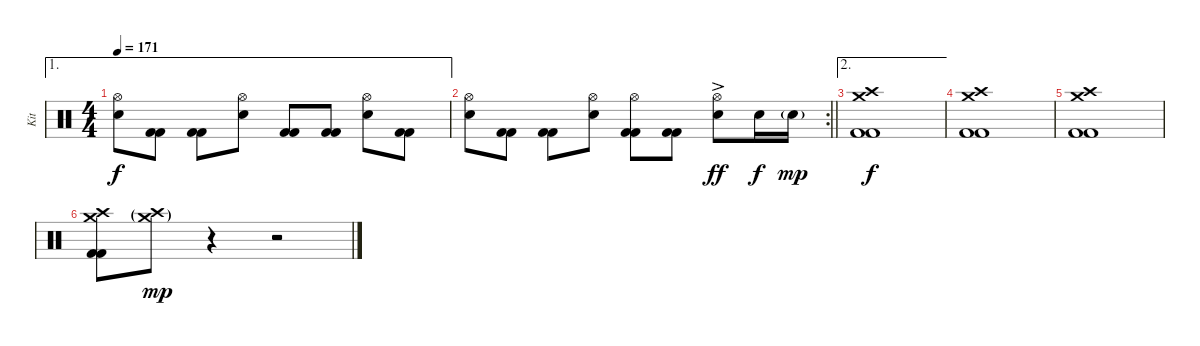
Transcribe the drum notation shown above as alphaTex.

\track ("Kit" "Kit") {instrument percussion}
\staff {score}
\articulation defaults
\ae 1
\ts (4 4)
\tempo 171
\clef neutral
\ks c
("Hi-Hat (open)" "Electric Snare (hit)").8{dy f} ("Kick (hit) 2" "Kick (hit) 2").8 ("Kick (hit) 2" "Kick (hit) 2").8 ("Hi-Hat (open)" "Electric Snare (hit)").8 ("Kick (hit) 2" "Kick (hit) 2").8 ("Kick (hit) 2" "Kick (hit) 2").8 ("Hi-Hat (open)" "Electric Snare (hit)").8 ("Kick (hit) 2" "Kick (hit) 2").8 |
\rc 2
\barLineRight lightlight
("Hi-Hat (open)" "Electric Snare (hit)").8 ("Kick (hit) 2" "Kick (hit) 2").8 ("Kick (hit) 2" "Kick (hit) 2").8 ("Hi-Hat (open)" "Electric Snare (hit)").8 ("Hi-Hat (open)" "Kick (hit) 2" "Kick (hit) 2").8 ("Kick (hit) 2" "Kick (hit) 2").8 ("Hi-Hat (open)"{ac} "Electric Snare (hit)").8{dy ff} "Electric Snare (hit)".16{dy f} "Electric Snare (hit)"{g}.16{dy mp} |
\ae 2
("Crash medium (hit)" "Crash high (hit)" "Kick (hit) 2" "Kick (hit) 2").1{dy f} |
("Crash medium (hit)" "Crash high (hit)" "Kick (hit) 2" "Kick (hit) 2").1 |
("Crash medium (hit)" "Crash high (hit)" "Kick (hit) 2" "Kick (hit) 2").1 |
("Crash medium (hit)" "Crash high (hit)" "Kick (hit) 2" "Kick (hit) 2").8 ("Crash medium (hit)"{g} "Crash high (hit)"{g}).8{dy mp} r.4 r.2
